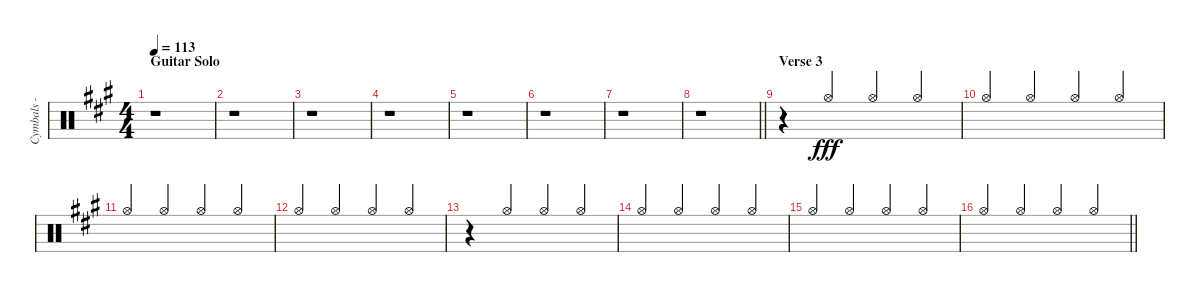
\track ("Cymbals - hi-hat" "Cymbals - ") {instrument percussion}
\staff {score}
\articulation defaults
\ts (4 4)
\section ("" "Guitar Solo")
\tempo 113
\clef neutral
\ks f#minor
r.1{dy fff} |
r.1 |
r.1 |
r.1 |
r.1 |
r.1 |
r.1 |
\barLineRight lightlight
r.1 |
\section ("" "Verse 3")
r.4 "Hi-Hat (open)".4{beam Up} "Hi-Hat (open)".4{beam Up} "Hi-Hat (open)".4{beam Up} |
"Hi-Hat (open)".4{beam Up} "Hi-Hat (open)".4{beam Up} "Hi-Hat (open)".4{beam Up} "Hi-Hat (open)".4{beam Up} |
"Hi-Hat (open)".4{beam Up} "Hi-Hat (open)".4{beam Up} "Hi-Hat (open)".4{beam Up} "Hi-Hat (open)".4{beam Up} |
"Hi-Hat (open)".4{beam Up} "Hi-Hat (open)".4{beam Up} "Hi-Hat (open)".4{beam Up} "Hi-Hat (open)".4{beam Up} |
r.4 "Hi-Hat (open)".4{beam Up} "Hi-Hat (open)".4{beam Up} "Hi-Hat (open)".4{beam Up} |
"Hi-Hat (open)".4{beam Up} "Hi-Hat (open)".4{beam Up} "Hi-Hat (open)".4{beam Up} "Hi-Hat (open)".4{beam Up} |
"Hi-Hat (open)".4{beam Up} "Hi-Hat (open)".4{beam Up} "Hi-Hat (open)".4{beam Up} "Hi-Hat (open)".4{beam Up} |
\barLineRight lightlight "Hi-Hat (open)".4{beam Up} "Hi-Hat (open)".4{beam Up} "Hi-Hat (open)".4{beam Up} "Hi-Hat (open)".4{beam Up}
